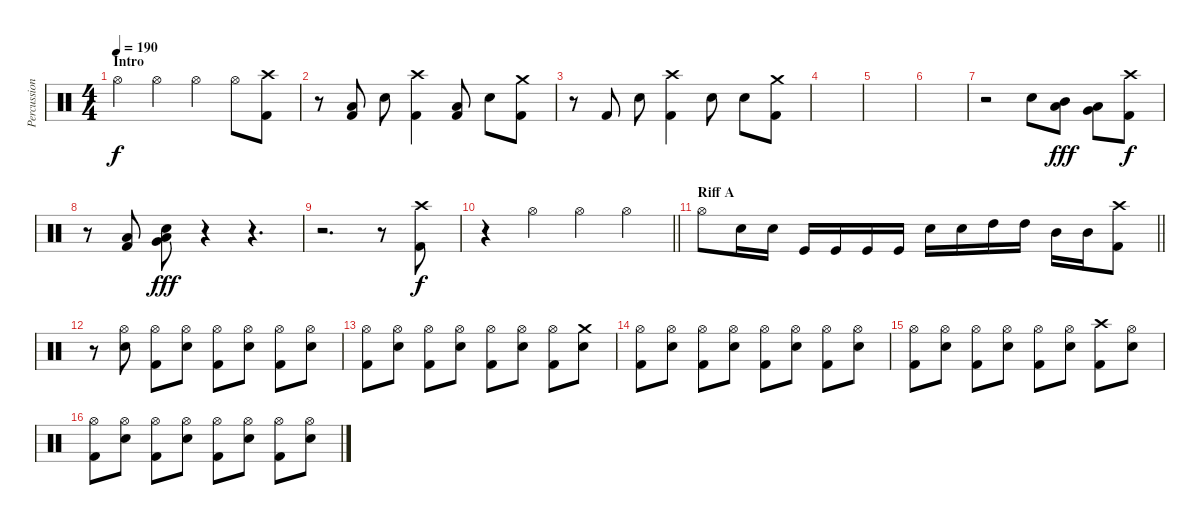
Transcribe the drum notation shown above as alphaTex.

\track ("Percussions" "Percussion") {instrument percussion}
\staff {score}
\articulation defaults
\ts (4 4)
\section ("" "Intro")
\tempo 190
\clef neutral
\ks c "Hi-Hat (open)".4{dy f} "Hi-Hat (open)".4 "Hi-Hat (open)".4 "Hi-Hat (open)".8
("Crash high (hit)" "Kick (hit) 2").8 |
r.8 ("Low Tom (hit)" "Kick (hit) 2").8 "Electric Snare (hit)".8 ("Crash high (hit)" "Kick (hit) 2").4 ("Low Tom (hit)" "Kick (hit) 2").8 "Electric Snare (hit)".8 ("Crash medium (hit)" "Kick (hit) 2").8 |
r.8 "Kick (hit) 2".8 "Electric Snare (hit)".8 ("Crash high (hit)" "Kick (hit) 2").4 "Electric Snare (hit)".8 "Electric Snare (hit)".8 ("Crash medium (hit)" "Kick (hit) 2").8 |
|
|
|
r.2 "Electric Snare (hit)".8 ("Low Tom (hit)" "Mid Tom (hit)").8{dy fff} ("Very Low Tom (hit)" "Low Floor Tom (hit)").8 ("Crash high (hit)" "Kick (hit) 2").8{dy f} |
r.8 ("Low Tom (hit)" "Kick (hit) 2").8 ("Electric Snare (hit)" "Low Floor Tom (hit)" "Very Low Tom (hit)").8{dy fff} r.4 r.4{d} |
r.2{d} r.8 ("Crash high (hit)" "Kick (hit) 2").8{dy f} |
\barLineRight lightlight
r.4 "Hi-Hat (open)".4 "Hi-Hat (open)".4 "Hi-Hat (open)".4 |
\section ("" "Riff A")
\barLineRight lightlight "Hi-Hat (open)".8 "Electric Snare (hit)".16 "Electric Snare (hit)".16 "Kick (hit)".16 "Kick (hit)".16 "Kick (hit)".16 "Kick (hit)".16 "Electric Snare (hit)".16 "Electric Snare (hit)".16 "High Tom (hit)".16 "High Tom (hit)".16 "Mid Tom (hit)".16 "Mid Tom (hit)".16
("Crash high (hit)" "Kick (hit) 2").8 |
r.8 ("Hi-Hat (open)" "Electric Snare (hit)").8 ("Hi-Hat (open)" "Kick (hit) 2").8 ("Hi-Hat (open)" "Electric Snare (hit)").8 ("Hi-Hat (open)" "Kick (hit) 2").8 ("Hi-Hat (open)" "Electric Snare (hit)").8 ("Hi-Hat (open)" "Kick (hit) 2").8 ("Hi-Hat (open)" "Electric Snare (hit)").8 |
("Hi-Hat (open)" "Kick (hit) 2").8 ("Hi-Hat (open)" "Electric Snare (hit)").8 ("Hi-Hat (open)" "Kick (hit) 2").8 ("Hi-Hat (open)" "Electric Snare (hit)").8 ("Hi-Hat (open)" "Kick (hit) 2").8 ("Hi-Hat (open)" "Electric Snare (hit)").8 ("Hi-Hat (open)" "Kick (hit) 2").8 ("Crash medium (hit)" "Electric Snare (hit)").8 |
("Hi-Hat (open)" "Kick (hit) 2").8 ("Hi-Hat (open)" "Electric Snare (hit)").8 ("Hi-Hat (open)" "Kick (hit) 2").8 ("Hi-Hat (open)" "Electric Snare (hit)").8 ("Hi-Hat (open)" "Kick (hit) 2").8 ("Hi-Hat (open)" "Electric Snare (hit)").8 ("Hi-Hat (open)" "Kick (hit) 2").8 ("Hi-Hat (open)" "Electric Snare (hit)").8 |
("Hi-Hat (open)" "Kick (hit) 2").8 ("Hi-Hat (open)" "Electric Snare (hit)").8 ("Hi-Hat (open)" "Kick (hit) 2").8 ("Hi-Hat (open)" "Electric Snare (hit)").8 ("Hi-Hat (open)" "Kick (hit) 2").8 ("Hi-Hat (open)" "Electric Snare (hit)").8 ("Crash high (hit)" "Kick (hit) 2").8 ("Hi-Hat (open)" "Electric Snare (hit)").8 |
("Hi-Hat (open)" "Kick (hit) 2").8 ("Hi-Hat (open)" "Electric Snare (hit)").8 ("Hi-Hat (open)" "Kick (hit) 2").8 ("Hi-Hat (open)" "Electric Snare (hit)").8 ("Hi-Hat (open)" "Kick (hit) 2").8 ("Hi-Hat (open)" "Electric Snare (hit)").8 ("Hi-Hat (open)" "Kick (hit) 2").8 ("Hi-Hat (open)" "Electric Snare (hit)").8
